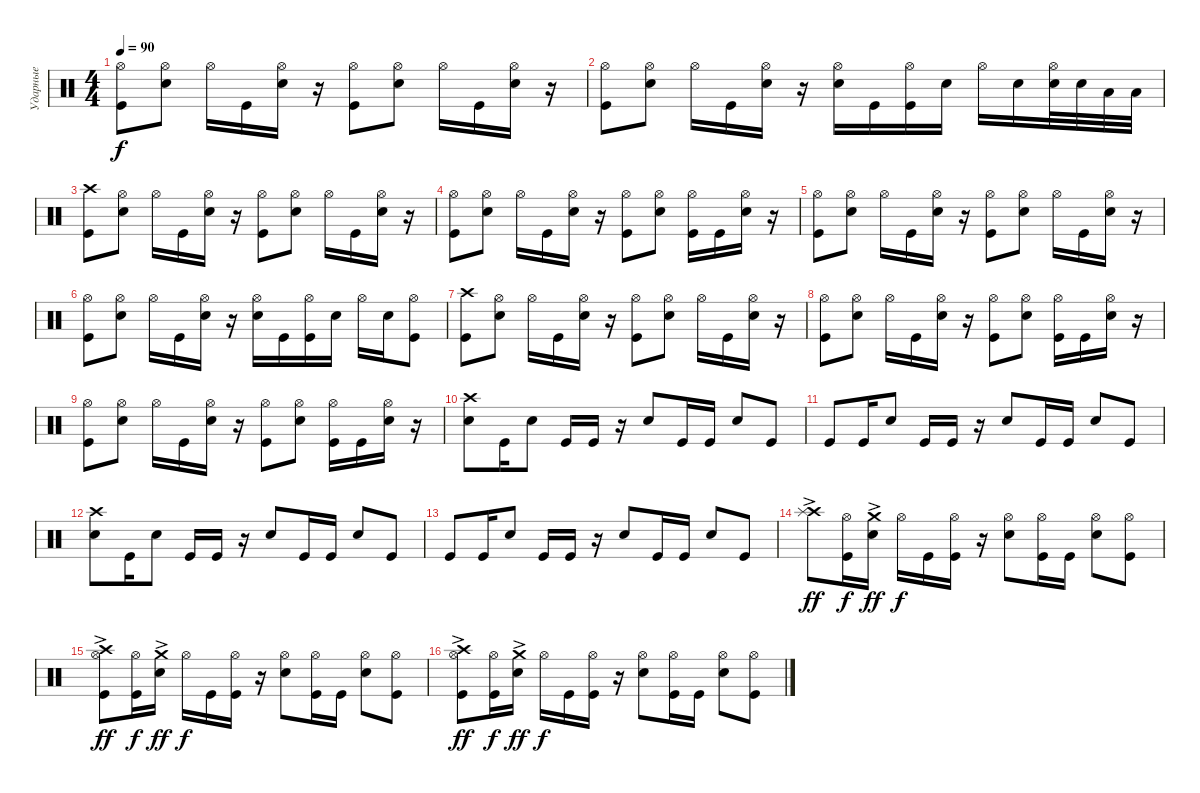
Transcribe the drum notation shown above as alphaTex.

\track ("Ударные" "Ударные") {instrument percussion}
\staff {score}
\articulation defaults
\ts (4 4)
\tempo 90
\clef neutral
\ks c
("Kick (hit)" "Hi-Hat (open)").8{dy f} ("Electric Snare (hit)" "Hi-Hat (open)").8 "Hi-Hat (open)".16 "Kick (hit)".16 ("Electric Snare (hit)" "Hi-Hat (open)").16 r.16 ("Kick (hit)" "Hi-Hat (open)").8 ("Electric Snare (hit)" "Hi-Hat (open)").8 "Hi-Hat (open)".16 "Kick (hit)".16 ("Electric Snare (hit)" "Hi-Hat (open)").16 r.16 |
("Kick (hit)" "Hi-Hat (open)").8 ("Electric Snare (hit)" "Hi-Hat (open)").8 "Hi-Hat (open)".16 "Kick (hit)".16 ("Electric Snare (hit)" "Hi-Hat (open)").16 r.16 ("Electric Snare (hit)" "Hi-Hat (open)").16 "Kick (hit)".16 ("Kick (hit)" "Hi-Hat (open)").16 "Electric Snare (hit)".16 "Hi-Hat (open)".16 "Electric Snare (hit)".16 ("Electric Snare (hit)" "Hi-Hat (open)").32 "Electric Snare (hit)".32 "Low Tom (hit)".32 "Low Tom (hit)".32 |
("Kick (hit)" "Crash high (hit)").8 ("Electric Snare (hit)" "Hi-Hat (open)").8 "Hi-Hat (open)".16 "Kick (hit)".16 ("Electric Snare (hit)" "Hi-Hat (open)").16 r.16 ("Kick (hit)" "Hi-Hat (open)").8 ("Electric Snare (hit)" "Hi-Hat (open)").8 "Hi-Hat (open)".16 "Kick (hit)".16 ("Electric Snare (hit)" "Hi-Hat (open)").16 r.16 |
("Kick (hit)" "Hi-Hat (open)").8 ("Electric Snare (hit)" "Hi-Hat (open)").8 "Hi-Hat (open)".16 "Kick (hit)".16 ("Electric Snare (hit)" "Hi-Hat (open)").16 r.16 ("Kick (hit)" "Hi-Hat (open)").8 ("Electric Snare (hit)" "Hi-Hat (open)").8 ("Hi-Hat (open)" "Kick (hit)").16 "Kick (hit)".16 ("Electric Snare (hit)" "Hi-Hat (open)").16 r.16 |
("Kick (hit)" "Hi-Hat (open)").8 ("Electric Snare (hit)" "Hi-Hat (open)").8 "Hi-Hat (open)".16 "Kick (hit)".16 ("Electric Snare (hit)" "Hi-Hat (open)").16 r.16 ("Kick (hit)" "Hi-Hat (open)").8 ("Electric Snare (hit)" "Hi-Hat (open)").8 "Hi-Hat (open)".16 "Kick (hit)".16 ("Electric Snare (hit)" "Hi-Hat (open)").16 r.16 |
("Kick (hit)" "Hi-Hat (open)").8 ("Electric Snare (hit)" "Hi-Hat (open)").8 "Hi-Hat (open)".16 "Kick (hit)".16 ("Electric Snare (hit)" "Hi-Hat (open)").16 r.16 ("Electric Snare (hit)" "Hi-Hat (open)").16 "Kick (hit)".16 ("Kick (hit)" "Hi-Hat (open)").16 "Electric Snare (hit)".16 "Hi-Hat (open)".16 "Electric Snare (hit)".16 ("Kick (hit)" "Hi-Hat (open)").8 |
("Kick (hit)" "Crash high (hit)").8 ("Electric Snare (hit)" "Hi-Hat (open)").8 "Hi-Hat (open)".16 "Kick (hit)".16 ("Electric Snare (hit)" "Hi-Hat (open)").16 r.16 ("Kick (hit)" "Hi-Hat (open)").8 ("Electric Snare (hit)" "Hi-Hat (open)").8 "Hi-Hat (open)".16 "Kick (hit)".16 ("Electric Snare (hit)" "Hi-Hat (open)").16 r.16 |
("Kick (hit)" "Hi-Hat (open)").8 ("Electric Snare (hit)" "Hi-Hat (open)").8 "Hi-Hat (open)".16 "Kick (hit)".16 ("Electric Snare (hit)" "Hi-Hat (open)").16 r.16 ("Kick (hit)" "Hi-Hat (open)").8 ("Electric Snare (hit)" "Hi-Hat (open)").8 ("Hi-Hat (open)" "Kick (hit)").16 "Kick (hit)".16 ("Electric Snare (hit)" "Hi-Hat (open)").16 r.16 |
("Kick (hit)" "Hi-Hat (open)").8 ("Electric Snare (hit)" "Hi-Hat (open)").8 "Hi-Hat (open)".16 "Kick (hit)".16 ("Electric Snare (hit)" "Hi-Hat (open)").16 r.16 ("Kick (hit)" "Hi-Hat (open)").8 ("Electric Snare (hit)" "Hi-Hat (open)").8 ("Hi-Hat (open)" "Kick (hit)").16 "Kick (hit)".16 ("Electric Snare (hit)" "Hi-Hat (open)").16 r.16 |
("Electric Snare (hit)" "Crash high (hit)").8 "Kick (hit)".16 "Electric Snare (hit)".8 "Kick (hit)".16 "Kick (hit)".16 r.16 "Electric Snare (hit)".8 "Kick (hit)".16 "Kick (hit)".16 "Electric Snare (hit)".8 "Kick (hit)".8 |
"Kick (hit)".8 "Kick (hit)".16 "Electric Snare (hit)".8 "Kick (hit)".16 "Kick (hit)".16 r.16 "Electric Snare (hit)".8 "Kick (hit)".16 "Kick (hit)".16 "Electric Snare (hit)".8 "Kick (hit)".8 |
("Electric Snare (hit)" "Crash high (hit)").8 "Kick (hit)".16 "Electric Snare (hit)".8 "Kick (hit)".16 "Kick (hit)".16 r.16 "Electric Snare (hit)".8 "Kick (hit)".16 "Kick (hit)".16 "Electric Snare (hit)".8 "Kick (hit)".8 |
"Kick (hit)".8 "Kick (hit)".16 "Electric Snare (hit)".8 "Kick (hit)".16 "Kick (hit)".16 r.16 "Electric Snare (hit)".8 "Kick (hit)".16 "Kick (hit)".16 "Electric Snare (hit)".8 "Kick (hit)".8 |
("Crash high (hit)"{ac} "Splash (hit)").8{dy ff} ("Kick (hit)" "Hi-Hat (open)").16{dy f} ("Electric Snare (hit)" "Crash medium (hit)"{ac}).16{dy ff} "Hi-Hat (open)".16{dy f} "Kick (hit)".16 ("Kick (hit)" "Hi-Hat (open)").16 r.16 ("Electric Snare (hit)" "Hi-Hat (open)").8 ("Kick (hit)" "Hi-Hat (open)").16 "Kick (hit)".16 ("Electric Snare (hit)" "Hi-Hat (open)").8 ("Kick (hit)" "Hi-Hat (open)").8 |
("Kick (hit)" "Hi-Hat (open)" "Crash high (hit)"{ac}).8{dy ff} ("Kick (hit)" "Hi-Hat (open)").16{dy f} ("Electric Snare (hit)" "Crash medium (hit)"{ac}).16{dy ff} "Hi-Hat (open)".16{dy f} "Kick (hit)".16 ("Kick (hit)" "Hi-Hat (open)").16 r.16 ("Electric Snare (hit)" "Hi-Hat (open)").8 ("Kick (hit)" "Hi-Hat (open)").16 "Kick (hit)".16 ("Electric Snare (hit)" "Hi-Hat (open)").8 ("Kick (hit)" "Hi-Hat (open)").8 |
("Kick (hit)" "Hi-Hat (open)" "Crash high (hit)"{ac}).8{dy ff} ("Kick (hit)" "Hi-Hat (open)").16{dy f} ("Electric Snare (hit)" "Crash medium (hit)"{ac}).16{dy ff} "Hi-Hat (open)".16{dy f} "Kick (hit)".16 ("Kick (hit)" "Hi-Hat (open)").16 r.16 ("Electric Snare (hit)" "Hi-Hat (open)").8 ("Kick (hit)" "Hi-Hat (open)").16 "Kick (hit)".16 ("Electric Snare (hit)" "Hi-Hat (open)").8 ("Kick (hit)" "Hi-Hat (open)").8
